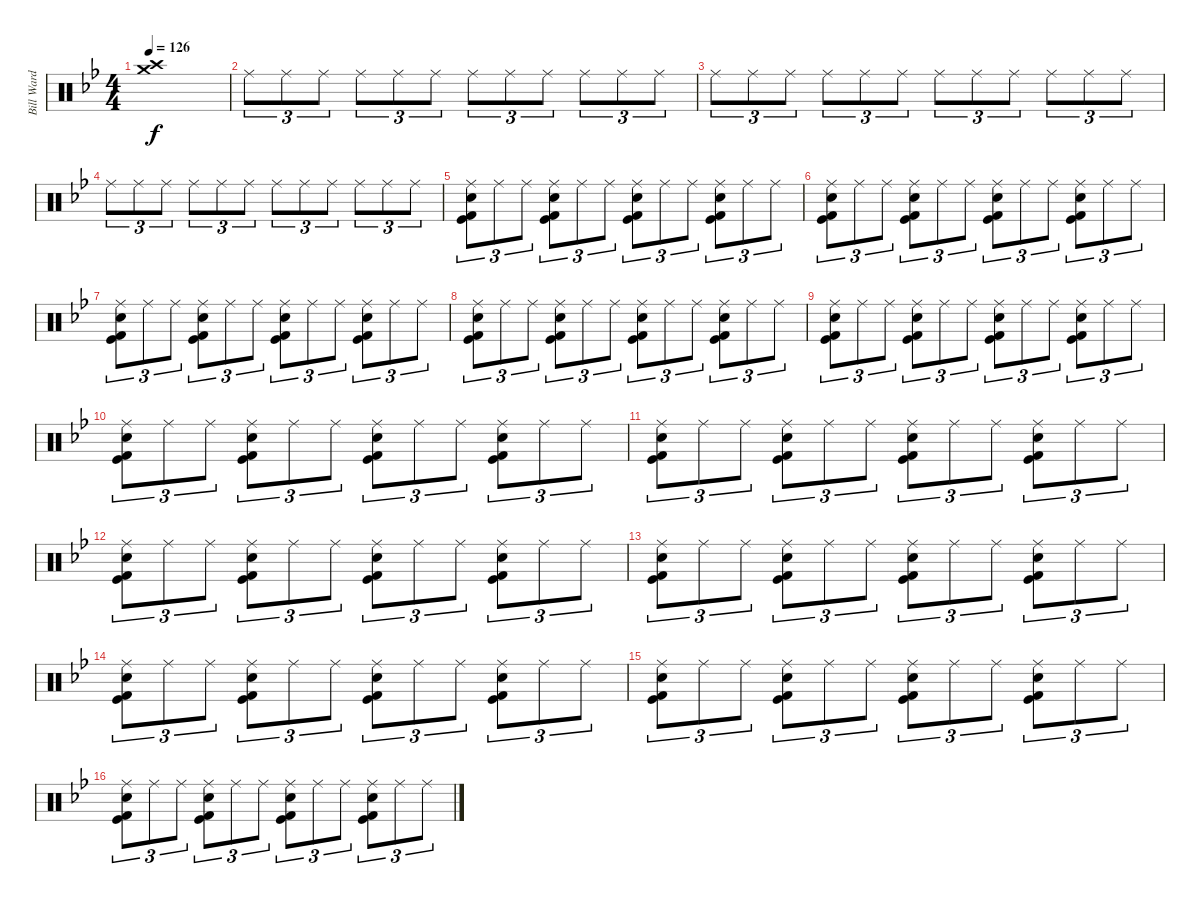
\track ("Bill Ward" "Bill Ward") {instrument percussion}
\staff {score}
\articulation defaults
\ts (4 4)
\tempo 126
\clef neutral
\ks bb
("Crash high (hit)" "Crash medium (hit)").1{dy f} |
"Ride (middle)".8{tu (3 2)} "Ride (middle)".8{tu (3 2)} "Ride (middle)".8{tu (3 2)} "Ride (middle)".8{tu (3 2)} "Ride (middle)".8{tu (3 2)} "Ride (middle)".8{tu (3 2)} "Ride (middle)".8{tu (3 2)} "Ride (middle)".8{tu (3 2)} "Ride (middle)".8{tu (3 2)} "Ride (middle)".8{tu (3 2)} "Ride (middle)".8{tu (3 2)} "Ride (middle)".8{tu (3 2)} |
"Ride (middle)".8{tu (3 2)} "Ride (middle)".8{tu (3 2)} "Ride (middle)".8{tu (3 2)} "Ride (middle)".8{tu (3 2)} "Ride (middle)".8{tu (3 2)} "Ride (middle)".8{tu (3 2)} "Ride (middle)".8{tu (3 2)} "Ride (middle)".8{tu (3 2)} "Ride (middle)".8{tu (3 2)} "Ride (middle)".8{tu (3 2)} "Ride (middle)".8{tu (3 2)} "Ride (middle)".8{tu (3 2)} |
"Ride (middle)".8{tu (3 2)} "Ride (middle)".8{tu (3 2)} "Ride (middle)".8{tu (3 2)} "Ride (middle)".8{tu (3 2)} "Ride (middle)".8{tu (3 2)} "Ride (middle)".8{tu (3 2)} "Ride (middle)".8{tu (3 2)} "Ride (middle)".8{tu (3 2)} "Ride (middle)".8{tu (3 2)} "Ride (middle)".8{tu (3 2)} "Ride (middle)".8{tu (3 2)} "Ride (middle)".8{tu (3 2)} |
("Ride (middle)" "Snare (hit) 2" "Kick (hit) 2" "Kick (hit)").8{tu (3 2)} "Ride (middle)".8{tu (3 2)} "Ride (middle)".8{tu (3 2)} ("Ride (middle)" "Snare (hit) 2" "Kick (hit) 2" "Kick (hit)").8{tu (3 2)} "Ride (middle)".8{tu (3 2)} "Ride (middle)".8{tu (3 2)} ("Ride (middle)" "Snare (hit) 2" "Kick (hit) 2" "Kick (hit)").8{tu (3 2)} "Ride (middle)".8{tu (3 2)} "Ride (middle)".8{tu (3 2)} ("Ride (middle)" "Snare (hit) 2" "Kick (hit) 2" "Kick (hit)").8{tu (3 2)} "Ride (middle)".8{tu (3 2)} "Ride (middle)".8{tu (3 2)} |
("Ride (middle)" "Snare (hit) 2" "Kick (hit) 2" "Kick (hit)").8{tu (3 2)} "Ride (middle)".8{tu (3 2)} "Ride (middle)".8{tu (3 2)} ("Ride (middle)" "Snare (hit) 2" "Kick (hit) 2" "Kick (hit)").8{tu (3 2)} "Ride (middle)".8{tu (3 2)} "Ride (middle)".8{tu (3 2)} ("Ride (middle)" "Snare (hit) 2" "Kick (hit) 2" "Kick (hit)").8{tu (3 2)} "Ride (middle)".8{tu (3 2)} "Ride (middle)".8{tu (3 2)} ("Ride (middle)" "Snare (hit) 2" "Kick (hit) 2" "Kick (hit)").8{tu (3 2)} "Ride (middle)".8{tu (3 2)} "Ride (middle)".8{tu (3 2)} |
("Ride (middle)" "Snare (hit) 2" "Kick (hit) 2" "Kick (hit)").8{tu (3 2)} "Ride (middle)".8{tu (3 2)} "Ride (middle)".8{tu (3 2)} ("Ride (middle)" "Snare (hit) 2" "Kick (hit) 2" "Kick (hit)").8{tu (3 2)} "Ride (middle)".8{tu (3 2)} "Ride (middle)".8{tu (3 2)} ("Ride (middle)" "Snare (hit) 2" "Kick (hit) 2" "Kick (hit)").8{tu (3 2)} "Ride (middle)".8{tu (3 2)} "Ride (middle)".8{tu (3 2)} ("Ride (middle)" "Snare (hit) 2" "Kick (hit) 2" "Kick (hit)").8{tu (3 2)} "Ride (middle)".8{tu (3 2)} "Ride (middle)".8{tu (3 2)} |
("Ride (middle)" "Snare (hit) 2" "Kick (hit) 2" "Kick (hit)").8{tu (3 2)} "Ride (middle)".8{tu (3 2)} "Ride (middle)".8{tu (3 2)} ("Ride (middle)" "Snare (hit) 2" "Kick (hit) 2" "Kick (hit)").8{tu (3 2)} "Ride (middle)".8{tu (3 2)} "Ride (middle)".8{tu (3 2)} ("Ride (middle)" "Snare (hit) 2" "Kick (hit) 2" "Kick (hit)").8{tu (3 2)} "Ride (middle)".8{tu (3 2)} "Ride (middle)".8{tu (3 2)} ("Ride (middle)" "Snare (hit) 2" "Kick (hit) 2" "Kick (hit)").8{tu (3 2)} "Ride (middle)".8{tu (3 2)} "Ride (middle)".8{tu (3 2)} |
("Ride (middle)" "Snare (hit) 2" "Kick (hit) 2" "Kick (hit)").8{tu (3 2)} "Ride (middle)".8{tu (3 2)} "Ride (middle)".8{tu (3 2)} ("Ride (middle)" "Snare (hit) 2" "Kick (hit) 2" "Kick (hit)").8{tu (3 2)} "Ride (middle)".8{tu (3 2)} "Ride (middle)".8{tu (3 2)} ("Ride (middle)" "Snare (hit) 2" "Kick (hit) 2" "Kick (hit)").8{tu (3 2)} "Ride (middle)".8{tu (3 2)} "Ride (middle)".8{tu (3 2)} ("Ride (middle)" "Snare (hit) 2" "Kick (hit) 2" "Kick (hit)").8{tu (3 2)} "Ride (middle)".8{tu (3 2)} "Ride (middle)".8{tu (3 2)} |
("Ride (middle)" "Snare (hit) 2" "Kick (hit) 2" "Kick (hit)").8{tu (3 2)} "Ride (middle)".8{tu (3 2)} "Ride (middle)".8{tu (3 2)} ("Ride (middle)" "Snare (hit) 2" "Kick (hit) 2" "Kick (hit)").8{tu (3 2)} "Ride (middle)".8{tu (3 2)} "Ride (middle)".8{tu (3 2)} ("Ride (middle)" "Snare (hit) 2" "Kick (hit) 2" "Kick (hit)").8{tu (3 2)} "Ride (middle)".8{tu (3 2)} "Ride (middle)".8{tu (3 2)} ("Ride (middle)" "Snare (hit) 2" "Kick (hit) 2" "Kick (hit)").8{tu (3 2)} "Ride (middle)".8{tu (3 2)} "Ride (middle)".8{tu (3 2)} |
("Ride (middle)" "Snare (hit) 2" "Kick (hit) 2" "Kick (hit)").8{tu (3 2)} "Ride (middle)".8{tu (3 2)} "Ride (middle)".8{tu (3 2)} ("Ride (middle)" "Snare (hit) 2" "Kick (hit) 2" "Kick (hit)").8{tu (3 2)} "Ride (middle)".8{tu (3 2)} "Ride (middle)".8{tu (3 2)} ("Ride (middle)" "Snare (hit) 2" "Kick (hit) 2" "Kick (hit)").8{tu (3 2)} "Ride (middle)".8{tu (3 2)} "Ride (middle)".8{tu (3 2)} ("Ride (middle)" "Snare (hit) 2" "Kick (hit) 2" "Kick (hit)").8{tu (3 2)} "Ride (middle)".8{tu (3 2)} "Ride (middle)".8{tu (3 2)} |
("Ride (middle)" "Snare (hit) 2" "Kick (hit) 2" "Kick (hit)").8{tu (3 2)} "Ride (middle)".8{tu (3 2)} "Ride (middle)".8{tu (3 2)} ("Ride (middle)" "Snare (hit) 2" "Kick (hit) 2" "Kick (hit)").8{tu (3 2)} "Ride (middle)".8{tu (3 2)} "Ride (middle)".8{tu (3 2)} ("Ride (middle)" "Snare (hit) 2" "Kick (hit) 2" "Kick (hit)").8{tu (3 2)} "Ride (middle)".8{tu (3 2)} "Ride (middle)".8{tu (3 2)} ("Ride (middle)" "Snare (hit) 2" "Kick (hit) 2" "Kick (hit)").8{tu (3 2)} "Ride (middle)".8{tu (3 2)} "Ride (middle)".8{tu (3 2)} |
("Ride (middle)" "Snare (hit) 2" "Kick (hit) 2" "Kick (hit)").8{tu (3 2)} "Ride (middle)".8{tu (3 2)} "Ride (middle)".8{tu (3 2)} ("Ride (middle)" "Snare (hit) 2" "Kick (hit) 2" "Kick (hit)").8{tu (3 2)} "Ride (middle)".8{tu (3 2)} "Ride (middle)".8{tu (3 2)} ("Ride (middle)" "Snare (hit) 2" "Kick (hit) 2" "Kick (hit)").8{tu (3 2)} "Ride (middle)".8{tu (3 2)} "Ride (middle)".8{tu (3 2)} ("Ride (middle)" "Snare (hit) 2" "Kick (hit) 2" "Kick (hit)").8{tu (3 2)} "Ride (middle)".8{tu (3 2)} "Ride (middle)".8{tu (3 2)} |
("Ride (middle)" "Snare (hit) 2" "Kick (hit) 2" "Kick (hit)").8{tu (3 2)} "Ride (middle)".8{tu (3 2)} "Ride (middle)".8{tu (3 2)} ("Ride (middle)" "Snare (hit) 2" "Kick (hit) 2" "Kick (hit)").8{tu (3 2)} "Ride (middle)".8{tu (3 2)} "Ride (middle)".8{tu (3 2)} ("Ride (middle)" "Snare (hit) 2" "Kick (hit) 2" "Kick (hit)").8{tu (3 2)} "Ride (middle)".8{tu (3 2)} "Ride (middle)".8{tu (3 2)} ("Ride (middle)" "Snare (hit) 2" "Kick (hit) 2" "Kick (hit)").8{tu (3 2)} "Ride (middle)".8{tu (3 2)} "Ride (middle)".8{tu (3 2)} |
("Ride (middle)" "Snare (hit) 2" "Kick (hit) 2" "Kick (hit)").8{tu (3 2)} "Ride (middle)".8{tu (3 2)} "Ride (middle)".8{tu (3 2)} ("Ride (middle)" "Snare (hit) 2" "Kick (hit) 2" "Kick (hit)").8{tu (3 2)} "Ride (middle)".8{tu (3 2)} "Ride (middle)".8{tu (3 2)} ("Ride (middle)" "Snare (hit) 2" "Kick (hit) 2" "Kick (hit)").8{tu (3 2)} "Ride (middle)".8{tu (3 2)} "Ride (middle)".8{tu (3 2)} ("Ride (middle)" "Snare (hit) 2" "Kick (hit) 2" "Kick (hit)").8{tu (3 2)} "Ride (middle)".8{tu (3 2)} "Ride (middle)".8{tu (3 2)} |
("Ride (middle)" "Snare (hit) 2" "Kick (hit) 2" "Kick (hit)").8{tu (3 2)} "Ride (middle)".8{tu (3 2)} "Ride (middle)".8{tu (3 2)} ("Ride (middle)" "Snare (hit) 2" "Kick (hit) 2" "Kick (hit)").8{tu (3 2)} "Ride (middle)".8{tu (3 2)} "Ride (middle)".8{tu (3 2)} ("Ride (middle)" "Snare (hit) 2" "Kick (hit) 2" "Kick (hit)").8{tu (3 2)} "Ride (middle)".8{tu (3 2)} "Ride (middle)".8{tu (3 2)} ("Ride (middle)" "Snare (hit) 2" "Kick (hit) 2" "Kick (hit)").8{tu (3 2)} "Ride (middle)".8{tu (3 2)} "Ride (middle)".8{tu (3 2)}
